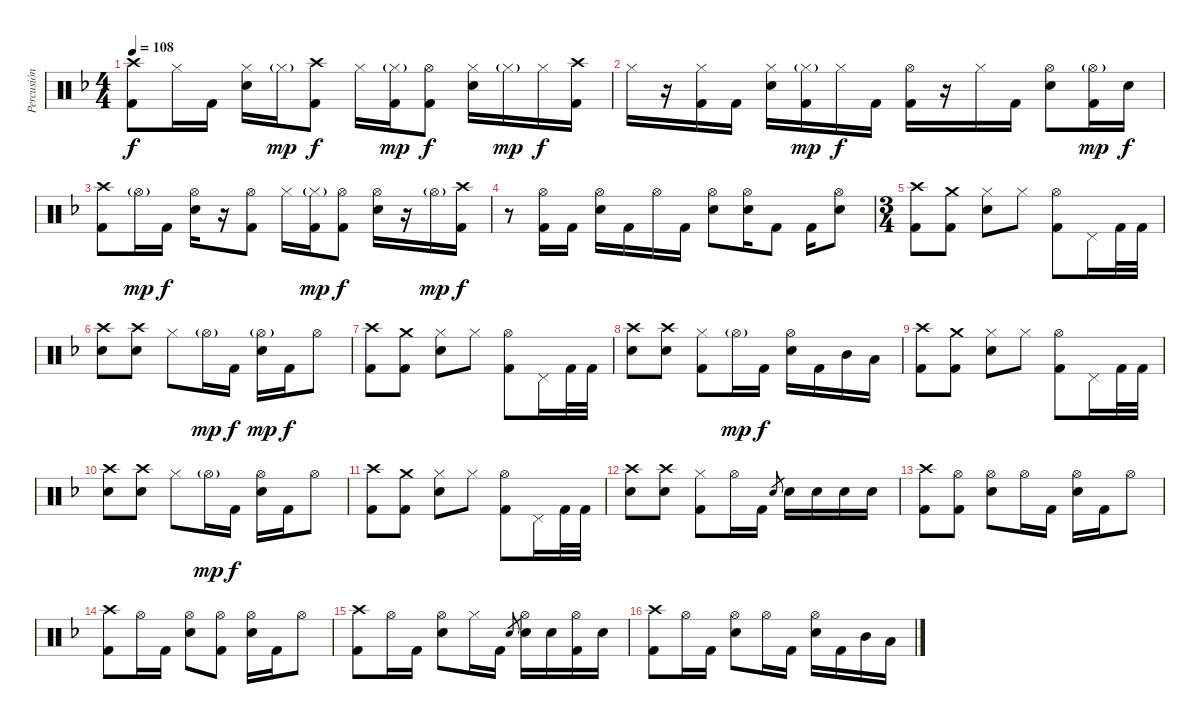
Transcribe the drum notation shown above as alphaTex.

\track ("Percusión" "Percusión") {instrument percussion}
\staff {score}
\articulation defaults
\ts (4 4)
\tempo 108
\clef neutral
\ks f
("Crash high (hit)" "Kick (hit) 2").8{dy f} "Hi-Hat (closed)".16 "Kick (hit) 2".16 ("Hi-Hat (closed)" "Snare (hit) 2").16 "Hi-Hat (closed)"{g}.16{dy mp} ("Crash high (hit)" "Kick (hit) 2").8{dy f} "Hi-Hat (closed)".16 ("Hi-Hat (closed)"{g} "Kick (hit) 2").16{dy mp} ("Hi-Hat (open)" "Kick (hit) 2").8{dy f} ("Hi-Hat (closed)" "Snare (hit) 2").16 "Hi-Hat (closed)"{g}.16{dy mp} "Hi-Hat (closed)".16{dy f} ("Crash high (hit)" "Kick (hit) 2").16 |
"Hi-Hat (closed)".16 r.16 ("Hi-Hat (closed)" "Kick (hit) 2").16 "Kick (hit) 2".16 ("Hi-Hat (closed)" "Snare (hit) 2").16 ("Hi-Hat (closed)"{g} "Kick (hit) 2").16{dy mp} "Hi-Hat (closed)".16{dy f} "Kick (hit) 2".16 ("Hi-Hat (open)" "Kick (hit) 2").16 r.16 "Hi-Hat (closed)".16 "Kick (hit) 2".16 ("Hi-Hat (open)" "Snare (hit) 2").8 ("Hi-Hat (open)"{g} "Kick (hit) 2").16{dy mp} "Snare (hit) 2".16{dy f} |
("Crash high (hit)" "Kick (hit) 2").8 "Hi-Hat (open)"{g}.16{dy mp} "Kick (hit) 2".16{dy f} ("Hi-Hat (open)" "Snare (hit) 2").16 r.16 ("Hi-Hat (open)" "Kick (hit) 2").8 "Hi-Hat (closed)".16 ("Hi-Hat (closed)"{g} "Kick (hit) 2").16{dy mp} ("Hi-Hat (open)" "Kick (hit) 2").8{dy f} ("Hi-Hat (open)" "Snare (hit) 2").16 r.16 "Hi-Hat (open)"{g}.16{dy mp} ("Crash high (hit)" "Kick (hit) 2").16{dy f} |
r.8 ("Hi-Hat (open)" "Kick (hit) 2").16 "Kick (hit) 2".16 ("Hi-Hat (open)" "Snare (hit) 2").16 "Kick (hit) 2".16 "Hi-Hat (open)".16 "Kick (hit) 2".16 ("Hi-Hat (open)" "Snare (hit) 2").8 ("Hi-Hat (open)" "Snare (hit) 2").16 "Kick (hit) 2".8 "Kick (hit) 2".16 ("Hi-Hat (open)" "Snare (hit) 2").8 |
\ts (3 4)
("Crash high (hit)" "Kick (hit) 2").8 ("Crash medium (hit)" "Kick (hit) 2").8 ("Hi-Hat (closed)" "Snare (hit) 2").8 "Hi-Hat (closed)".8 ("Hi-Hat (open)" "Kick (hit) 2").8 "Pedal Hi-Hat (hit)".16 "Kick (hit) 2".32 "Kick (hit) 2".32 |
("Crash high (hit)" "Snare (hit) 2").8 ("Crash high (hit)" "Snare (hit) 2").8 "Hi-Hat (closed)".8 "Hi-Hat (open)"{g}.16{dy mp} "Kick (hit) 2".16{dy f} ("Hi-Hat (open)"{g} "Snare (hit) 2").16{dy mp} "Kick (hit) 2".16{dy f} "Hi-Hat (open)".8 |
("Crash high (hit)" "Kick (hit) 2").8 ("Crash medium (hit)" "Kick (hit) 2").8 ("Hi-Hat (closed)" "Snare (hit) 2").8 "Hi-Hat (closed)".8 ("Hi-Hat (open)" "Kick (hit) 2").8 "Pedal Hi-Hat (hit)".16 "Kick (hit) 2".32 "Kick (hit) 2".32 |
("Crash high (hit)" "Snare (hit) 2").8 ("Crash high (hit)" "Snare (hit) 2").8 ("Hi-Hat (closed)" "Kick (hit) 2").8 "Hi-Hat (open)"{g}.16{dy mp} "Kick (hit) 2".16{dy f} ("Hi-Hat (open)" "Snare (hit) 2").16 "Kick (hit) 2".16 "Mid Tom (hit)".16 "Low Tom (hit)".16 |
("Crash high (hit)" "Kick (hit) 2").8 ("Crash medium (hit)" "Kick (hit) 2").8 ("Hi-Hat (closed)" "Snare (hit) 2").8 "Hi-Hat (closed)".8 ("Hi-Hat (open)" "Kick (hit) 2").8 "Pedal Hi-Hat (hit)".16 "Kick (hit) 2".32 "Kick (hit) 2".32 |
("Crash high (hit)" "Snare (hit) 2").8 ("Crash high (hit)" "Snare (hit) 2").8 "Hi-Hat (closed)".8 "Hi-Hat (open)"{g}.16{dy mp} "Kick (hit) 2".16{dy f} ("Hi-Hat (open)" "Snare (hit) 2").16 "Kick (hit) 2".16 "Hi-Hat (open)".8 |
("Crash high (hit)" "Kick (hit) 2").8 ("Crash medium (hit)" "Kick (hit) 2").8 ("Hi-Hat (closed)" "Snare (hit) 2").8 "Hi-Hat (closed)".8 ("Hi-Hat (open)" "Kick (hit) 2").8 "Pedal Hi-Hat (hit)".16 "Kick (hit) 2".32 "Kick (hit) 2".32 |
("Crash high (hit)" "Snare (hit) 2").8 ("Crash high (hit)" "Snare (hit) 2").8 ("Hi-Hat (closed)" "Kick (hit) 2").8 "Hi-Hat (open)".16 "Kick (hit) 2".16 "Snare (hit) 2".8{gr} "Snare (hit) 2".16 "Snare (hit) 2".16 "Snare (hit) 2".16 "Snare (hit) 2".16 |
("Crash high (hit)" "Kick (hit) 2").8 ("Hi-Hat (open)" "Kick (hit) 2").8 ("Hi-Hat (open)" "Snare (hit) 2").8 "Hi-Hat (open)".16 "Kick (hit) 2".16 ("Hi-Hat (open)" "Snare (hit) 2").16 "Kick (hit) 2".16 "Hi-Hat (open)".8 |
("Crash high (hit)" "Kick (hit) 2").8 "Hi-Hat (open)".16 "Kick (hit) 2".16 ("Hi-Hat (open)" "Snare (hit) 2").8 ("Hi-Hat (open)" "Kick (hit) 2").8 ("Hi-Hat (open)" "Snare (hit) 2").16 "Kick (hit) 2".16 "Hi-Hat (open)".8 |
("Crash high (hit)" "Kick (hit) 2").8 "Hi-Hat (open)".16 "Kick (hit) 2".16 ("Hi-Hat (open)" "Snare (hit) 2").8 "Hi-Hat (closed)".16 "Kick (hit) 2".16 "Snare (hit) 2".8{gr} ("Hi-Hat (open)" "Snare (hit) 2").16 "Snare (hit) 2".16 ("Hi-Hat (open)" "Kick (hit) 2").16 "Snare (hit) 2".16 |
("Crash high (hit)" "Kick (hit) 2").8 "Hi-Hat (open)".16 "Kick (hit) 2".16 ("Hi-Hat (open)" "Snare (hit) 2").8 "Hi-Hat (open)".16 "Kick (hit) 2".16 ("Hi-Hat (open)" "Snare (hit) 2").16 "Kick (hit) 2".16 "Mid Tom (hit)".16 "Low Tom (hit)".16
